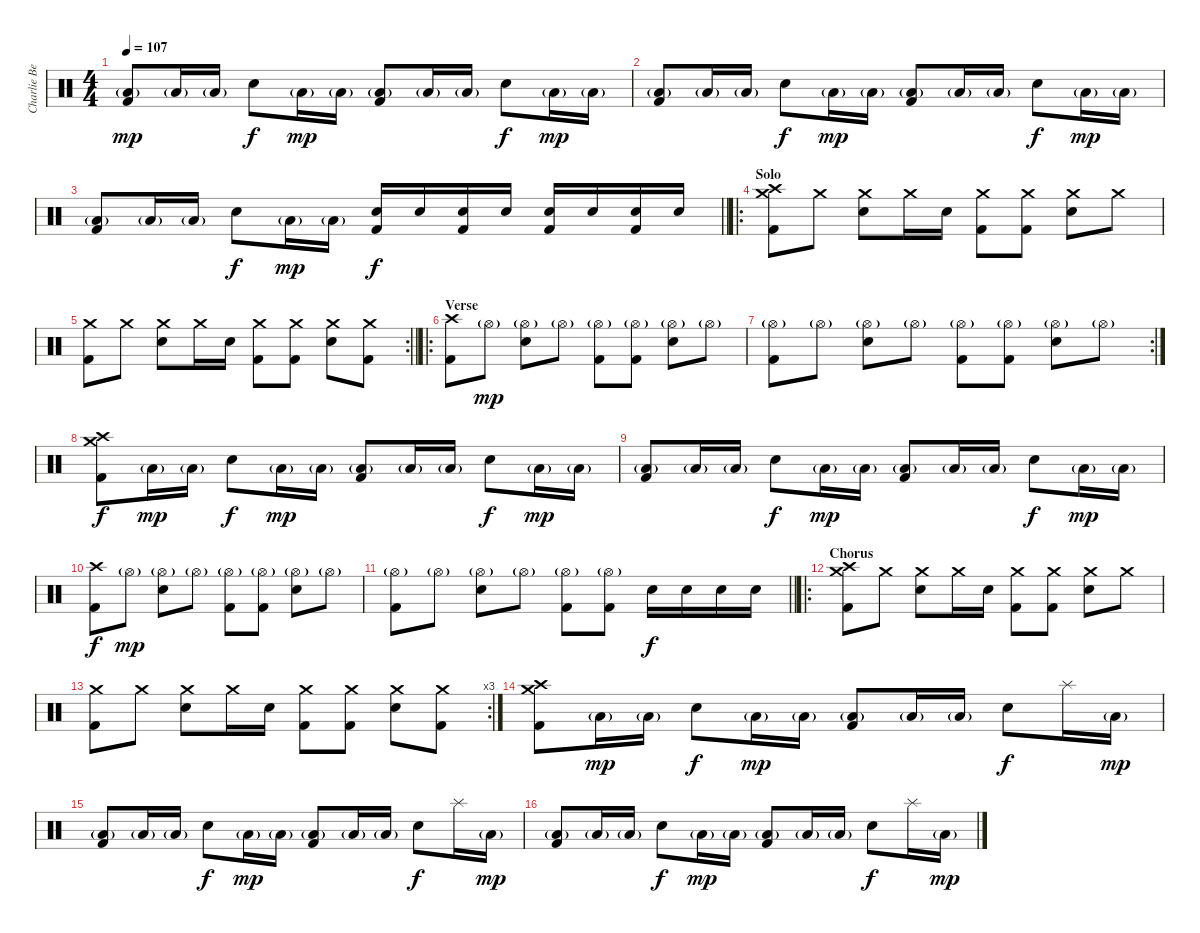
\track ("Charlie Benante" "Charlie Be") {instrument percussion}
\staff {score}
\articulation defaults
\ts (4 4)
\tempo 107
\clef neutral
\ks c
("Low Tom (hit)"{g} "Kick (hit) 2").8{dy mp} "Low Tom (hit)"{g}.16 "Low Tom (hit)"{g}.16 "Electric Snare (hit)".8{dy f} "Low Tom (hit)"{g}.16{dy mp} "Low Tom (hit)"{g}.16 ("Low Tom (hit)"{g} "Kick (hit) 2").8 "Low Tom (hit)"{g}.16 "Low Tom (hit)"{g}.16 "Electric Snare (hit)".8{dy f} "Low Tom (hit)"{g}.16{dy mp} "Low Tom (hit)"{g}.16 |
("Low Tom (hit)"{g} "Kick (hit) 2").8 "Low Tom (hit)"{g}.16 "Low Tom (hit)"{g}.16 "Electric Snare (hit)".8{dy f} "Low Tom (hit)"{g}.16{dy mp} "Low Tom (hit)"{g}.16 ("Low Tom (hit)"{g} "Kick (hit) 2").8 "Low Tom (hit)"{g}.16 "Low Tom (hit)"{g}.16 "Electric Snare (hit)".8{dy f} "Low Tom (hit)"{g}.16{dy mp} "Low Tom (hit)"{g}.16 |
\barLineRight lightlight
("Low Tom (hit)"{g} "Kick (hit) 2").8 "Low Tom (hit)"{g}.16 "Low Tom (hit)"{g}.16 "Electric Snare (hit)".8{dy f} "Low Tom (hit)"{g}.16{dy mp} "Low Tom (hit)"{g}.16 ("Electric Snare (hit)" "Kick (hit) 2").16{dy f} "Electric Snare (hit)".16 ("Electric Snare (hit)" "Kick (hit) 2").16 "Electric Snare (hit)".16 ("Electric Snare (hit)" "Kick (hit) 2").16 "Electric Snare (hit)".16 ("Electric Snare (hit)" "Kick (hit) 2").16 "Electric Snare (hit)".16 |
\ro
\section ("" "Solo")
("Crash high (hit)" "Crash medium (hit)" "Kick (hit) 2").8 "Crash medium (hit)".8 ("Crash medium (hit)" "Electric Snare (hit)").8 "Crash medium (hit)".16 "Electric Snare (hit)".16 ("Crash medium (hit)" "Kick (hit) 2").8 ("Crash medium (hit)" "Kick (hit) 2").8 ("Crash medium (hit)" "Electric Snare (hit)").8 "Crash medium (hit)".8 |
\rc 2
\barLineRight lightlight
("Crash medium (hit)" "Kick (hit) 2").8 "Crash medium (hit)".8 ("Crash medium (hit)" "Electric Snare (hit)").8 "Crash medium (hit)".16 "Electric Snare (hit)".16 ("Crash medium (hit)" "Kick (hit) 2").8 ("Crash medium (hit)" "Kick (hit) 2").8 ("Crash medium (hit)" "Electric Snare (hit)").8 ("Crash medium (hit)" "Kick (hit) 2").8 |
\ro
\section ("" "Verse")
("Crash high (hit)" "Kick (hit) 2").8 "Hi-Hat (open)"{g}.8{dy mp} ("Hi-Hat (open)"{g} "Electric Snare (hit)").8 "Hi-Hat (open)"{g}.8 ("Hi-Hat (open)"{g} "Kick (hit) 2").8 ("Hi-Hat (open)"{g} "Kick (hit) 2").8 ("Hi-Hat (open)"{g} "Electric Snare (hit)").8 "Hi-Hat (open)"{g}.8 |
\rc 2
("Hi-Hat (open)"{g} "Kick (hit) 2").8 "Hi-Hat (open)"{g}.8 ("Hi-Hat (open)"{g} "Electric Snare (hit)").8 "Hi-Hat (open)"{g}.8 ("Hi-Hat (open)"{g} "Kick (hit) 2").8 ("Hi-Hat (open)"{g} "Kick (hit) 2").8 ("Hi-Hat (open)"{g} "Electric Snare (hit)").8 "Hi-Hat (open)"{g}.8 |
("Crash high (hit)" "Crash medium (hit)" "Kick (hit) 2").8{dy f} "Low Tom (hit)"{g}.16{dy mp} "Low Tom (hit)"{g}.16 "Electric Snare (hit)".8{dy f} "Low Tom (hit)"{g}.16{dy mp} "Low Tom (hit)"{g}.16 ("Low Tom (hit)"{g} "Kick (hit) 2").8 "Low Tom (hit)"{g}.16 "Low Tom (hit)"{g}.16 "Electric Snare (hit)".8{dy f} "Low Tom (hit)"{g}.16{dy mp} "Low Tom (hit)"{g}.16 |
("Low Tom (hit)"{g} "Kick (hit) 2").8 "Low Tom (hit)"{g}.16 "Low Tom (hit)"{g}.16 "Electric Snare (hit)".8{dy f} "Low Tom (hit)"{g}.16{dy mp} "Low Tom (hit)"{g}.16 ("Low Tom (hit)"{g} "Kick (hit) 2").8 "Low Tom (hit)"{g}.16 "Low Tom (hit)"{g}.16 "Electric Snare (hit)".8{dy f} "Low Tom (hit)"{g}.16{dy mp} "Low Tom (hit)"{g}.16 |
("Crash high (hit)" "Kick (hit) 2").8{dy f} "Hi-Hat (open)"{g}.8{dy mp} ("Hi-Hat (open)"{g} "Electric Snare (hit)").8 "Hi-Hat (open)"{g}.8 ("Hi-Hat (open)"{g} "Kick (hit) 2").8 ("Hi-Hat (open)"{g} "Kick (hit) 2").8 ("Hi-Hat (open)"{g} "Electric Snare (hit)").8 "Hi-Hat (open)"{g}.8 |
\barLineRight lightlight
("Hi-Hat (open)"{g} "Kick (hit) 2").8 "Hi-Hat (open)"{g}.8 ("Hi-Hat (open)"{g} "Electric Snare (hit)").8 "Hi-Hat (open)"{g}.8 ("Hi-Hat (open)"{g} "Kick (hit) 2").8 ("Hi-Hat (open)"{g} "Kick (hit) 2").8 "Electric Snare (hit)".16{dy f} "Electric Snare (hit)".16 "Electric Snare (hit)".16 "Electric Snare (hit)".16 |
\ro
\section ("" "Chorus")
("Crash high (hit)" "Crash medium (hit)" "Kick (hit) 2").8 "Crash medium (hit)".8 ("Crash medium (hit)" "Electric Snare (hit)").8 "Crash medium (hit)".16 "Electric Snare (hit)".16 ("Crash medium (hit)" "Kick (hit) 2").8 ("Crash medium (hit)" "Kick (hit) 2").8 ("Crash medium (hit)" "Electric Snare (hit)").8 "Crash medium (hit)".8 |
\rc 3
("Crash medium (hit)" "Kick (hit) 2").8 "Crash medium (hit)".8 ("Crash medium (hit)" "Electric Snare (hit)").8 "Crash medium (hit)".16 "Electric Snare (hit)".16 ("Crash medium (hit)" "Kick (hit) 2").8 ("Crash medium (hit)" "Kick (hit) 2").8 ("Crash medium (hit)" "Electric Snare (hit)").8 ("Crash medium (hit)" "Kick (hit) 2").8 |
("Crash high (hit)" "Crash medium (hit)" "Kick (hit) 2").8 "Low Tom (hit)"{g}.16{dy mp} "Low Tom (hit)"{g}.16 "Electric Snare (hit)".8{dy f} "Low Tom (hit)"{g}.16{dy mp} "Low Tom (hit)"{g}.16 ("Low Tom (hit)"{g} "Kick (hit) 2").8 "Low Tom (hit)"{g}.16 "Low Tom (hit)"{g}.16 "Electric Snare (hit)".8{dy f} "Splash (hit)".16 "Low Tom (hit)"{g}.16{dy mp} |
("Low Tom (hit)"{g} "Kick (hit) 2").8 "Low Tom (hit)"{g}.16 "Low Tom (hit)"{g}.16 "Electric Snare (hit)".8{dy f} "Low Tom (hit)"{g}.16{dy mp} "Low Tom (hit)"{g}.16 ("Low Tom (hit)"{g} "Kick (hit) 2").8 "Low Tom (hit)"{g}.16 "Low Tom (hit)"{g}.16 "Electric Snare (hit)".8{dy f} "Splash (hit)".16 "Low Tom (hit)"{g}.16{dy mp} |
("Low Tom (hit)"{g} "Kick (hit) 2").8 "Low Tom (hit)"{g}.16 "Low Tom (hit)"{g}.16 "Electric Snare (hit)".8{dy f} "Low Tom (hit)"{g}.16{dy mp} "Low Tom (hit)"{g}.16 ("Low Tom (hit)"{g} "Kick (hit) 2").8 "Low Tom (hit)"{g}.16 "Low Tom (hit)"{g}.16 "Electric Snare (hit)".8{dy f} "Splash (hit)".16 "Low Tom (hit)"{g}.16{dy mp}
